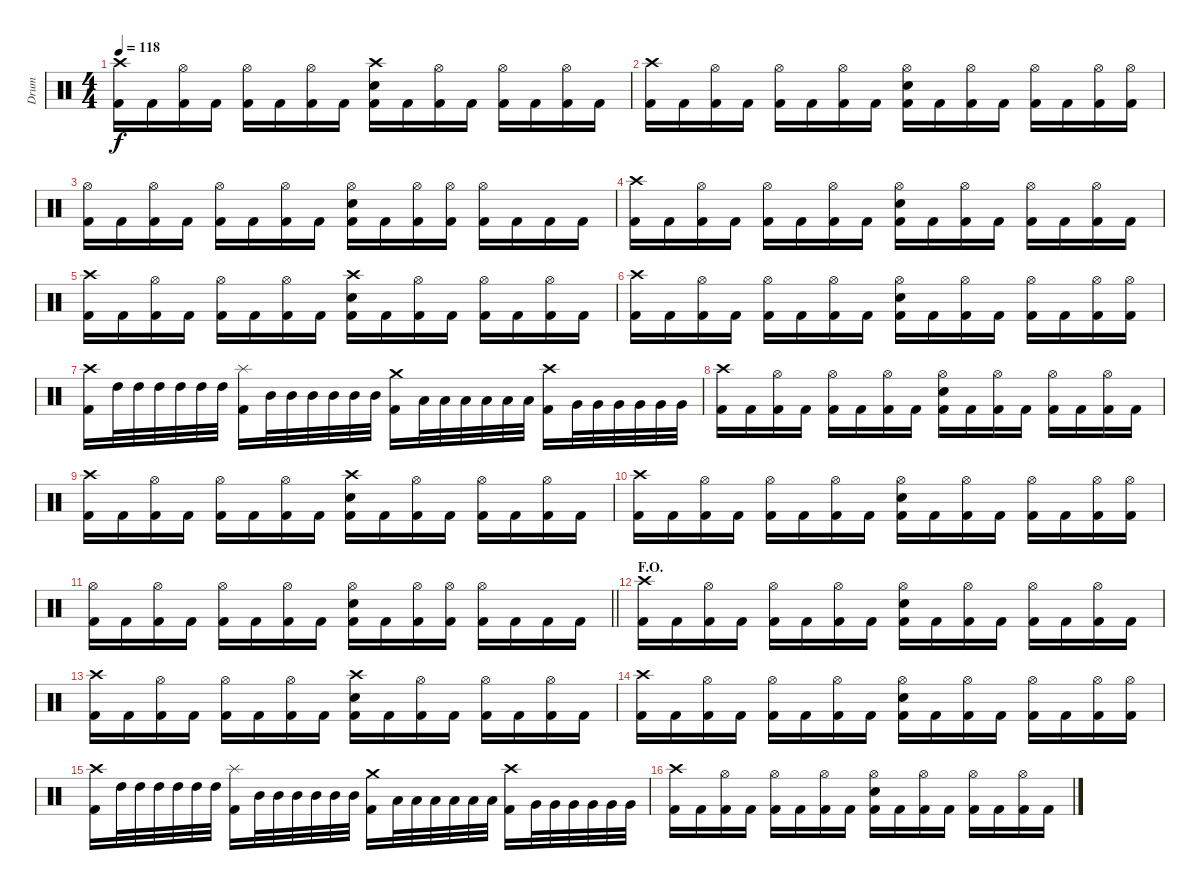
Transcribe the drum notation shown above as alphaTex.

\track ("Drum" "Drum") {instrument percussion}
\staff {score}
\articulation defaults
\ts (4 4)
\tempo 118
\clef neutral
\ks c
("Crash high (hit)" "Kick (hit) 2").16{dy f} "Kick (hit) 2".16 ("Hi-Hat (open)" "Kick (hit) 2").16 "Kick (hit) 2".16 ("Hi-Hat (open)" "Kick (hit) 2").16 "Kick (hit) 2".16 ("Hi-Hat (open)" "Kick (hit) 2").16 "Kick (hit) 2".16 ("Crash high (hit)" "Electric Snare (hit)" "Kick (hit) 2").16 "Kick (hit) 2".16 ("Hi-Hat (open)" "Kick (hit) 2").16 "Kick (hit) 2".16 ("Hi-Hat (open)" "Kick (hit) 2").16 "Kick (hit) 2".16 ("Hi-Hat (open)" "Kick (hit) 2").16 "Kick (hit) 2".16 |
("Crash high (hit)" "Kick (hit) 2").16 "Kick (hit) 2".16 ("Hi-Hat (open)" "Kick (hit) 2").16 "Kick (hit) 2".16 ("Hi-Hat (open)" "Kick (hit) 2").16 "Kick (hit) 2".16 ("Hi-Hat (open)" "Kick (hit) 2").16 "Kick (hit) 2".16 ("Hi-Hat (open)" "Electric Snare (hit)" "Kick (hit) 2").16 "Kick (hit) 2".16 ("Hi-Hat (open)" "Kick (hit) 2").16 "Kick (hit) 2".16 ("Hi-Hat (open)" "Kick (hit) 2").16 "Kick (hit) 2".16 ("Hi-Hat (open)" "Kick (hit) 2").16 ("Hi-Hat (open)" "Kick (hit) 2").16 |
("Hi-Hat (open)" "Kick (hit) 2").16 "Kick (hit) 2".16 ("Hi-Hat (open)" "Kick (hit) 2").16 "Kick (hit) 2".16 ("Hi-Hat (open)" "Kick (hit) 2").16 "Kick (hit) 2".16 ("Hi-Hat (open)" "Kick (hit) 2").16 "Kick (hit) 2".16 ("Hi-Hat (open)" "Electric Snare (hit)" "Kick (hit) 2").16 "Kick (hit) 2".16 ("Hi-Hat (open)" "Kick (hit) 2").16 ("Hi-Hat (open)" "Kick (hit) 2").16 ("Hi-Hat (open)" "Kick (hit) 2").16 "Kick (hit) 2".16 "Kick (hit) 2".16 "Kick (hit) 2".16 |
("Crash high (hit)" "Kick (hit) 2").16 "Kick (hit) 2".16 ("Hi-Hat (open)" "Kick (hit) 2").16 "Kick (hit) 2".16 ("Hi-Hat (open)" "Kick (hit) 2").16 "Kick (hit) 2".16 ("Hi-Hat (open)" "Kick (hit) 2").16 "Kick (hit) 2".16 ("Hi-Hat (open)" "Electric Snare (hit)" "Kick (hit) 2").16 "Kick (hit) 2".16 ("Hi-Hat (open)" "Kick (hit) 2").16 "Kick (hit) 2".16 ("Hi-Hat (open)" "Kick (hit) 2").16 "Kick (hit) 2".16 ("Hi-Hat (open)" "Kick (hit) 2").16 "Kick (hit) 2".16 |
("Crash high (hit)" "Kick (hit) 2").16 "Kick (hit) 2".16 ("Hi-Hat (open)" "Kick (hit) 2").16 "Kick (hit) 2".16 ("Hi-Hat (open)" "Kick (hit) 2").16 "Kick (hit) 2".16 ("Hi-Hat (open)" "Kick (hit) 2").16 "Kick (hit) 2".16 ("Crash high (hit)" "Electric Snare (hit)" "Kick (hit) 2").16 "Kick (hit) 2".16 ("Hi-Hat (open)" "Kick (hit) 2").16 "Kick (hit) 2".16 ("Hi-Hat (open)" "Kick (hit) 2").16 "Kick (hit) 2".16 ("Hi-Hat (open)" "Kick (hit) 2").16 "Kick (hit) 2".16 |
("Crash high (hit)" "Kick (hit) 2").16 "Kick (hit) 2".16 ("Hi-Hat (open)" "Kick (hit) 2").16 "Kick (hit) 2".16 ("Hi-Hat (open)" "Kick (hit) 2").16 "Kick (hit) 2".16 ("Hi-Hat (open)" "Kick (hit) 2").16 "Kick (hit) 2".16 ("Hi-Hat (open)" "Electric Snare (hit)" "Kick (hit) 2").16 "Kick (hit) 2".16 ("Hi-Hat (open)" "Kick (hit) 2").16 "Kick (hit) 2".16 ("Hi-Hat (open)" "Kick (hit) 2").16 "Kick (hit) 2".16 ("Hi-Hat (open)" "Kick (hit) 2").16 ("Hi-Hat (open)" "Kick (hit) 2").16 |
("Crash high (hit)" "Kick (hit) 2").16 "High Tom (hit)".32 "High Tom (hit)".32 "High Tom (hit)".32 "High Tom (hit)".32 "High Tom (hit)".32 "High Tom (hit)".32 ("Splash (hit)" "Kick (hit) 2").16 "Mid Tom (hit)".32 "Mid Tom (hit)".32 "Mid Tom (hit)".32 "Mid Tom (hit)".32 "Mid Tom (hit)".32 "Mid Tom (hit)".32 ("Crash medium (hit)" "Kick (hit) 2").16 "Low Tom (hit)".32 "Low Tom (hit)".32 "Low Tom (hit)".32 "Low Tom (hit)".32 "Low Tom (hit)".32 "Low Tom (hit)".32 ("Crash high (hit)" "Kick (hit) 2").16 "Very Low Tom (hit)".32 "Very Low Tom (hit)".32 "Very Low Tom (hit)".32 "Very Low Tom (hit)".32 "Very Low Tom (hit)".32 "Very Low Tom (hit)".32 |
("Crash high (hit)" "Kick (hit) 2").16 "Kick (hit) 2".16 ("Hi-Hat (open)" "Kick (hit) 2").16 "Kick (hit) 2".16 ("Hi-Hat (open)" "Kick (hit) 2").16 "Kick (hit) 2".16 ("Hi-Hat (open)" "Kick (hit) 2").16 "Kick (hit) 2".16 ("Hi-Hat (open)" "Electric Snare (hit)" "Kick (hit) 2").16 "Kick (hit) 2".16 ("Hi-Hat (open)" "Kick (hit) 2").16 "Kick (hit) 2".16 ("Hi-Hat (open)" "Kick (hit) 2").16 "Kick (hit) 2".16 ("Hi-Hat (open)" "Kick (hit) 2").16 "Kick (hit) 2".16 |
("Crash high (hit)" "Kick (hit) 2").16 "Kick (hit) 2".16 ("Hi-Hat (open)" "Kick (hit) 2").16 "Kick (hit) 2".16 ("Hi-Hat (open)" "Kick (hit) 2").16 "Kick (hit) 2".16 ("Hi-Hat (open)" "Kick (hit) 2").16 "Kick (hit) 2".16 ("Crash high (hit)" "Electric Snare (hit)" "Kick (hit) 2").16 "Kick (hit) 2".16 ("Hi-Hat (open)" "Kick (hit) 2").16 "Kick (hit) 2".16 ("Hi-Hat (open)" "Kick (hit) 2").16 "Kick (hit) 2".16 ("Hi-Hat (open)" "Kick (hit) 2").16 "Kick (hit) 2".16 |
("Crash high (hit)" "Kick (hit) 2").16 "Kick (hit) 2".16 ("Hi-Hat (open)" "Kick (hit) 2").16 "Kick (hit) 2".16 ("Hi-Hat (open)" "Kick (hit) 2").16 "Kick (hit) 2".16 ("Hi-Hat (open)" "Kick (hit) 2").16 "Kick (hit) 2".16 ("Hi-Hat (open)" "Electric Snare (hit)" "Kick (hit) 2").16 "Kick (hit) 2".16 ("Hi-Hat (open)" "Kick (hit) 2").16 "Kick (hit) 2".16 ("Hi-Hat (open)" "Kick (hit) 2").16 "Kick (hit) 2".16 ("Hi-Hat (open)" "Kick (hit) 2").16 ("Hi-Hat (open)" "Kick (hit) 2").16 |
\barLineRight lightlight
("Hi-Hat (open)" "Kick (hit) 2").16 "Kick (hit) 2".16 ("Hi-Hat (open)" "Kick (hit) 2").16 "Kick (hit) 2".16 ("Hi-Hat (open)" "Kick (hit) 2").16 "Kick (hit) 2".16 ("Hi-Hat (open)" "Kick (hit) 2").16 "Kick (hit) 2".16 ("Hi-Hat (open)" "Electric Snare (hit)" "Kick (hit) 2").16 "Kick (hit) 2".16 ("Hi-Hat (open)" "Kick (hit) 2").16 ("Hi-Hat (open)" "Kick (hit) 2").16 ("Hi-Hat (open)" "Kick (hit) 2").16 "Kick (hit) 2".16 "Kick (hit) 2".16 "Kick (hit) 2".16 |
\section ("" "F.O.")
("Crash high (hit)" "Kick (hit) 2").16{volume 9} "Kick (hit) 2".16 ("Hi-Hat (open)" "Kick (hit) 2").16 "Kick (hit) 2".16 ("Hi-Hat (open)" "Kick (hit) 2").16 "Kick (hit) 2".16 ("Hi-Hat (open)" "Kick (hit) 2").16 "Kick (hit) 2".16 ("Hi-Hat (open)" "Electric Snare (hit)" "Kick (hit) 2").16 "Kick (hit) 2".16 ("Hi-Hat (open)" "Kick (hit) 2").16 "Kick (hit) 2".16 ("Hi-Hat (open)" "Kick (hit) 2").16 "Kick (hit) 2".16 ("Hi-Hat (open)" "Kick (hit) 2").16 "Kick (hit) 2".16 |
("Crash high (hit)" "Kick (hit) 2").16 "Kick (hit) 2".16 ("Hi-Hat (open)" "Kick (hit) 2").16 "Kick (hit) 2".16 ("Hi-Hat (open)" "Kick (hit) 2").16 "Kick (hit) 2".16 ("Hi-Hat (open)" "Kick (hit) 2").16 "Kick (hit) 2".16 ("Crash high (hit)" "Electric Snare (hit)" "Kick (hit) 2").16 "Kick (hit) 2".16 ("Hi-Hat (open)" "Kick (hit) 2").16 "Kick (hit) 2".16 ("Hi-Hat (open)" "Kick (hit) 2").16 "Kick (hit) 2".16 ("Hi-Hat (open)" "Kick (hit) 2").16 "Kick (hit) 2".16 |
("Crash high (hit)" "Kick (hit) 2").16 "Kick (hit) 2".16 ("Hi-Hat (open)" "Kick (hit) 2").16 "Kick (hit) 2".16 ("Hi-Hat (open)" "Kick (hit) 2").16 "Kick (hit) 2".16 ("Hi-Hat (open)" "Kick (hit) 2").16 "Kick (hit) 2".16 ("Hi-Hat (open)" "Electric Snare (hit)" "Kick (hit) 2").16 "Kick (hit) 2".16 ("Hi-Hat (open)" "Kick (hit) 2").16 "Kick (hit) 2".16 ("Hi-Hat (open)" "Kick (hit) 2").16 "Kick (hit) 2".16 ("Hi-Hat (open)" "Kick (hit) 2").16 ("Hi-Hat (open)" "Kick (hit) 2").16 |
("Crash high (hit)" "Kick (hit) 2").16 "High Tom (hit)".32 "High Tom (hit)".32 "High Tom (hit)".32 "High Tom (hit)".32 "High Tom (hit)".32 "High Tom (hit)".32 ("Splash (hit)" "Kick (hit) 2").16 "Mid Tom (hit)".32 "Mid Tom (hit)".32 "Mid Tom (hit)".32 "Mid Tom (hit)".32 "Mid Tom (hit)".32 "Mid Tom (hit)".32 ("Crash medium (hit)" "Kick (hit) 2").16 "Low Tom (hit)".32 "Low Tom (hit)".32 "Low Tom (hit)".32 "Low Tom (hit)".32 "Low Tom (hit)".32 "Low Tom (hit)".32 ("Crash high (hit)" "Kick (hit) 2").16 "Very Low Tom (hit)".32 "Very Low Tom (hit)".32 "Very Low Tom (hit)".32 "Very Low Tom (hit)".32 "Very Low Tom (hit)".32 "Very Low Tom (hit)".32 |
("Crash high (hit)" "Kick (hit) 2").16{volume 4} "Kick (hit) 2".16 ("Hi-Hat (open)" "Kick (hit) 2").16 "Kick (hit) 2".16 ("Hi-Hat (open)" "Kick (hit) 2").16 "Kick (hit) 2".16 ("Hi-Hat (open)" "Kick (hit) 2").16 "Kick (hit) 2".16 ("Hi-Hat (open)" "Electric Snare (hit)" "Kick (hit) 2").16 "Kick (hit) 2".16 ("Hi-Hat (open)" "Kick (hit) 2").16 "Kick (hit) 2".16 ("Hi-Hat (open)" "Kick (hit) 2").16 "Kick (hit) 2".16 ("Hi-Hat (open)" "Kick (hit) 2").16 "Kick (hit) 2".16
